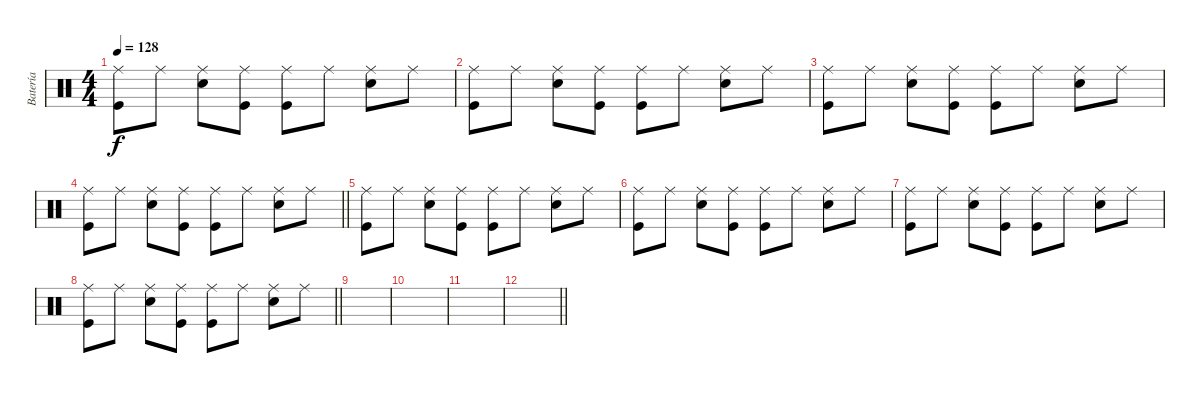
\track ("Batería" "Batería") {instrument percussion}
\staff {score}
\articulation defaults
\ts (4 4)
\tempo 128
\clef neutral
\ks c
("Ride (middle)" "Kick (hit)").8{dy f} "Ride (middle)".8 ("Ride (middle)" "Snare (hit) 2").8 ("Ride (middle)" "Kick (hit)").8 ("Ride (middle)" "Kick (hit)").8 "Ride (middle)".8 ("Ride (middle)" "Snare (hit) 2").8 "Ride (middle)".8 |
("Ride (middle)" "Kick (hit)").8 "Ride (middle)".8 ("Ride (middle)" "Snare (hit) 2").8 ("Ride (middle)" "Kick (hit)").8 ("Ride (middle)" "Kick (hit)").8 "Ride (middle)".8 ("Ride (middle)" "Snare (hit) 2").8 "Ride (middle)".8 |
("Ride (middle)" "Kick (hit)").8 "Ride (middle)".8 ("Ride (middle)" "Snare (hit) 2").8 ("Ride (middle)" "Kick (hit)").8 ("Ride (middle)" "Kick (hit)").8 "Ride (middle)".8 ("Ride (middle)" "Snare (hit) 2").8 "Ride (middle)".8 |
\barLineRight lightlight
("Ride (middle)" "Kick (hit)").8 "Ride (middle)".8 ("Ride (middle)" "Snare (hit) 2").8 ("Ride (middle)" "Kick (hit)").8 ("Ride (middle)" "Kick (hit)").8 "Ride (middle)".8 ("Ride (middle)" "Snare (hit) 2").8 "Ride (middle)".8 |
("Ride (middle)" "Kick (hit)").8 "Ride (middle)".8 ("Ride (middle)" "Snare (hit) 2").8 ("Ride (middle)" "Kick (hit)").8 ("Ride (middle)" "Kick (hit)").8 "Ride (middle)".8 ("Ride (middle)" "Snare (hit) 2").8 "Ride (middle)".8 |
("Ride (middle)" "Kick (hit)").8 "Ride (middle)".8 ("Ride (middle)" "Snare (hit) 2").8 ("Ride (middle)" "Kick (hit)").8 ("Ride (middle)" "Kick (hit)").8 "Ride (middle)".8 ("Ride (middle)" "Snare (hit) 2").8 "Ride (middle)".8 |
("Ride (middle)" "Kick (hit)").8 "Ride (middle)".8 ("Ride (middle)" "Snare (hit) 2").8 ("Ride (middle)" "Kick (hit)").8 ("Ride (middle)" "Kick (hit)").8 "Ride (middle)".8 ("Ride (middle)" "Snare (hit) 2").8 "Ride (middle)".8 |
\barLineRight lightlight
("Ride (middle)" "Kick (hit)").8 "Ride (middle)".8 ("Ride (middle)" "Snare (hit) 2").8 ("Ride (middle)" "Kick (hit)").8 ("Ride (middle)" "Kick (hit)").8 "Ride (middle)".8 ("Ride (middle)" "Snare (hit) 2").8 "Ride (middle)".8 |
|
|
|
\barLineRight lightlight
